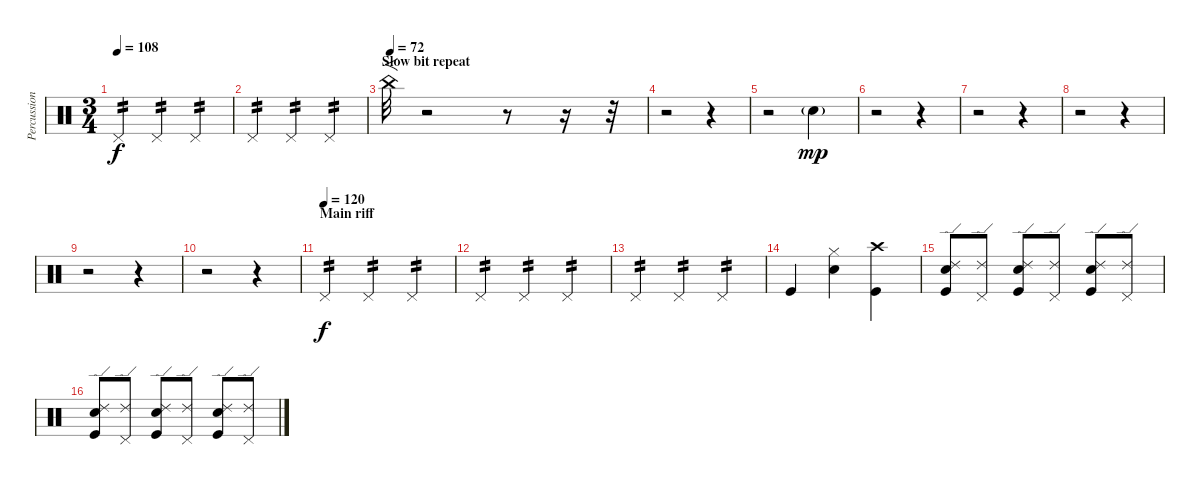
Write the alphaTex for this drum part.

\track ("Percussion" "Percussion") {instrument percussion}
\staff {score}
\articulation defaults
\ts (3 4)
\tempo 108
\clef neutral
\ks c "Pedal Hi-Hat (hit)".4{tp 2 dy f} "Pedal Hi-Hat (hit)".4{tp 2} "Pedal Hi-Hat (hit)".4{tp 2}
|
"Pedal Hi-Hat (hit)".4{tp 2} "Pedal Hi-Hat (hit)".4{tp 2} "Pedal Hi-Hat (hit)".4{tp 2} |
\section ("" "Slow bit repeat")
\tempo (72)
"China (hit)".32{f} r.2 r.8 r.16 r.32 |
r.2 r.4 |
r.2 "Metronome (bell)"{g}.2{dy mp} |
r.2 r.4 |
r.2 r.4 |
r.2 r.4 |
r.2 r.4 |
r.2 r.4 |
\section ("" "Main riff")
\tempo (120)
"Pedal Hi-Hat (hit)".4{tp 2 dy f} "Pedal Hi-Hat (hit)".4{tp 2} "Pedal Hi-Hat (hit)".4{tp 2} |
"Pedal Hi-Hat (hit)".4{tp 2} "Pedal Hi-Hat (hit)".4{tp 2} "Pedal Hi-Hat (hit)".4{tp 2} |
"Pedal Hi-Hat (hit)".4{tp 2} "Pedal Hi-Hat (hit)".4{tp 2} "Pedal Hi-Hat (hit)".4{tp 2} |
"Kick (hit)".4 ("Hi-Hat (closed)" "Snare (hit) 2").4 ("Kick (hit)" "Crash high (hit)").4 |
("Kick (hit)" "Electric Snare (hit)" "Ride (edge) 2").8 ("Pedal Hi-Hat (hit)" "Ride (edge) 2").8 ("Kick (hit)" "Electric Snare (hit)" "Ride (edge) 2").8 ("Pedal Hi-Hat (hit)" "Ride (edge) 2").8 ("Kick (hit)" "Electric Snare (hit)" "Ride (edge) 2").8 ("Pedal Hi-Hat (hit)" "Ride (edge) 2").8 |
("Kick (hit)" "Electric Snare (hit)" "Ride (edge) 2").8 ("Pedal Hi-Hat (hit)" "Ride (edge) 2").8 ("Kick (hit)" "Electric Snare (hit)" "Ride (edge) 2").8 ("Pedal Hi-Hat (hit)" "Ride (edge) 2").8 ("Kick (hit)" "Electric Snare (hit)" "Ride (edge) 2").8 ("Pedal Hi-Hat (hit)" "Ride (edge) 2").8
